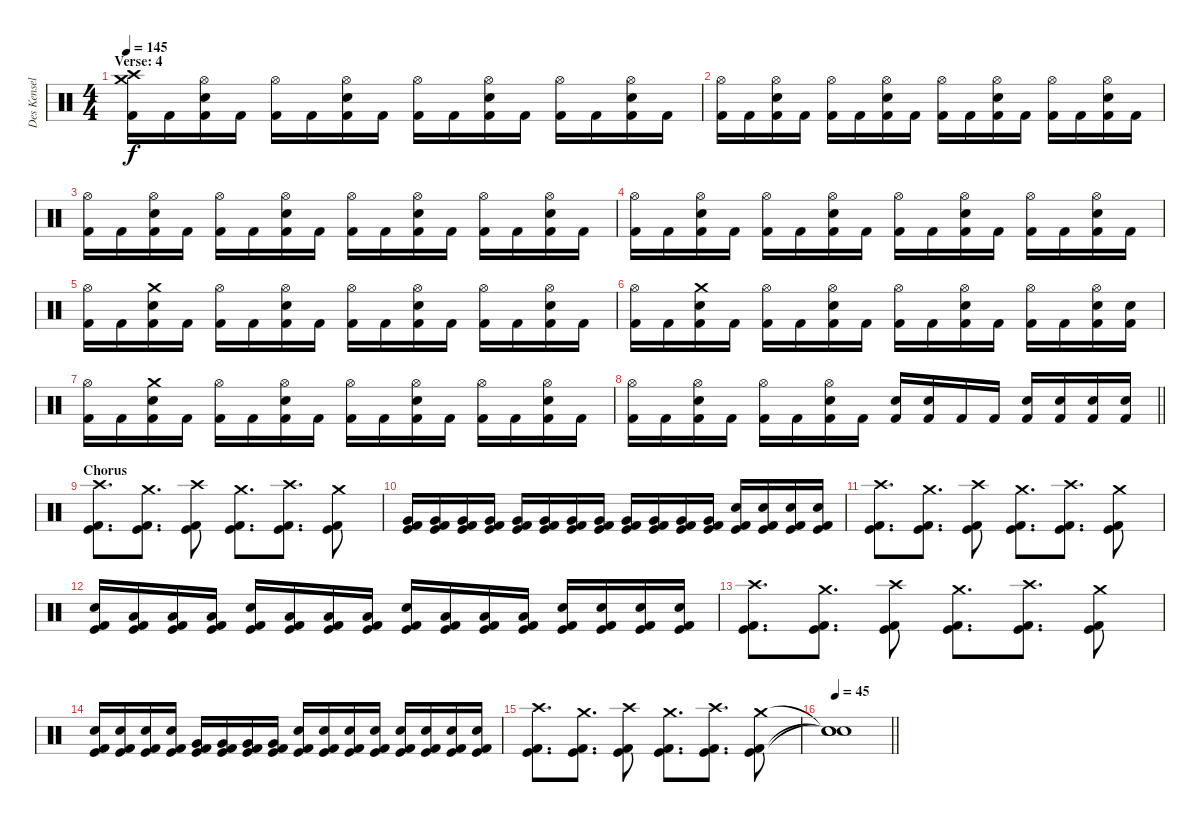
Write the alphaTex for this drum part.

\track ("Des Kensel" "Des Kensel") {instrument percussion}
\staff {score}
\articulation defaults
\ts (4 4)
\section ("" "Verse: 4")
\tempo 145
\clef neutral
\ks c
("Crash medium (hit)" "Crash high (hit)" "Kick (hit) 2").16{dy f volume 16} "Kick (hit) 2".16 ("Hi-Hat (open)" "Electric Snare (hit)" "Kick (hit) 2").16 "Kick (hit) 2".16 ("Hi-Hat (open)" "Kick (hit) 2").16 "Kick (hit) 2".16 ("Hi-Hat (open)" "Electric Snare (hit)" "Kick (hit) 2").16 "Kick (hit) 2".16 ("Hi-Hat (open)" "Kick (hit) 2").16 "Kick (hit) 2".16 ("Hi-Hat (open)" "Electric Snare (hit)" "Kick (hit) 2").16 "Kick (hit) 2".16 ("Hi-Hat (open)" "Kick (hit) 2").16 "Kick (hit) 2".16 ("Hi-Hat (open)" "Electric Snare (hit)" "Kick (hit) 2").16 "Kick (hit) 2".16 |
("Hi-Hat (open)" "Kick (hit) 2").16 "Kick (hit) 2".16 ("Hi-Hat (open)" "Electric Snare (hit)" "Kick (hit) 2").16 "Kick (hit) 2".16 ("Hi-Hat (open)" "Kick (hit) 2").16 "Kick (hit) 2".16 ("Hi-Hat (open)" "Electric Snare (hit)" "Kick (hit) 2").16 "Kick (hit) 2".16 ("Hi-Hat (open)" "Kick (hit) 2").16 "Kick (hit) 2".16 ("Hi-Hat (open)" "Electric Snare (hit)" "Kick (hit) 2").16 "Kick (hit) 2".16 ("Hi-Hat (open)" "Kick (hit) 2").16 "Kick (hit) 2".16 ("Hi-Hat (open)" "Electric Snare (hit)" "Kick (hit) 2").16 "Kick (hit) 2".16 |
("Hi-Hat (open)" "Kick (hit) 2").16 "Kick (hit) 2".16 ("Hi-Hat (open)" "Electric Snare (hit)" "Kick (hit) 2").16 "Kick (hit) 2".16 ("Hi-Hat (open)" "Kick (hit) 2").16 "Kick (hit) 2".16 ("Hi-Hat (open)" "Electric Snare (hit)" "Kick (hit) 2").16 "Kick (hit) 2".16 ("Hi-Hat (open)" "Kick (hit) 2").16 "Kick (hit) 2".16 ("Hi-Hat (open)" "Electric Snare (hit)" "Kick (hit) 2").16 "Kick (hit) 2".16 ("Hi-Hat (open)" "Kick (hit) 2").16 "Kick (hit) 2".16 ("Hi-Hat (open)" "Electric Snare (hit)" "Kick (hit) 2").16 "Kick (hit) 2".16 |
("Hi-Hat (open)" "Kick (hit) 2").16 "Kick (hit) 2".16 ("Hi-Hat (open)" "Electric Snare (hit)" "Kick (hit) 2").16 "Kick (hit) 2".16 ("Hi-Hat (open)" "Kick (hit) 2").16 "Kick (hit) 2".16 ("Hi-Hat (open)" "Electric Snare (hit)" "Kick (hit) 2").16 "Kick (hit) 2".16 ("Hi-Hat (open)" "Kick (hit) 2").16 "Kick (hit) 2".16 ("Hi-Hat (open)" "Electric Snare (hit)" "Kick (hit) 2").16 "Kick (hit) 2".16 ("Hi-Hat (open)" "Kick (hit) 2").16 "Kick (hit) 2".16 ("Hi-Hat (open)" "Electric Snare (hit)" "Kick (hit) 2").16 "Kick (hit) 2".16 |
("Hi-Hat (open)" "Kick (hit) 2").16 "Kick (hit) 2".16 ("Crash medium (hit)" "Electric Snare (hit)" "Kick (hit) 2").16 "Kick (hit) 2".16 ("Hi-Hat (open)" "Kick (hit) 2").16 "Kick (hit) 2".16 ("Hi-Hat (open)" "Electric Snare (hit)" "Kick (hit) 2").16 "Kick (hit) 2".16 ("Hi-Hat (open)" "Kick (hit) 2").16 "Kick (hit) 2".16 ("Hi-Hat (open)" "Electric Snare (hit)" "Kick (hit) 2").16 "Kick (hit) 2".16 ("Hi-Hat (open)" "Kick (hit) 2").16 "Kick (hit) 2".16 ("Hi-Hat (open)" "Electric Snare (hit)" "Kick (hit) 2").16 "Kick (hit) 2".16 |
("Hi-Hat (open)" "Kick (hit) 2").16 "Kick (hit) 2".16 ("Crash medium (hit)" "Electric Snare (hit)" "Kick (hit) 2").16 "Kick (hit) 2".16 ("Hi-Hat (open)" "Kick (hit) 2").16 "Kick (hit) 2".16 ("Hi-Hat (open)" "Electric Snare (hit)" "Kick (hit) 2").16 "Kick (hit) 2".16 ("Hi-Hat (open)" "Kick (hit) 2").16 "Kick (hit) 2".16 ("Hi-Hat (open)" "Electric Snare (hit)" "Kick (hit) 2").16 "Kick (hit) 2".16 ("Hi-Hat (open)" "Kick (hit) 2").16 "Kick (hit) 2".16 ("Hi-Hat (open)" "Electric Snare (hit)" "Kick (hit) 2").16 ("Electric Snare (hit)" "Kick (hit) 2").16 |
("Hi-Hat (open)" "Kick (hit) 2").16 "Kick (hit) 2".16 ("Crash medium (hit)" "Electric Snare (hit)" "Kick (hit) 2").16 "Kick (hit) 2".16 ("Hi-Hat (open)" "Kick (hit) 2").16 "Kick (hit) 2".16 ("Hi-Hat (open)" "Electric Snare (hit)" "Kick (hit) 2").16 "Kick (hit) 2".16 ("Hi-Hat (open)" "Kick (hit) 2").16 "Kick (hit) 2".16 ("Hi-Hat (open)" "Electric Snare (hit)" "Kick (hit) 2").16 "Kick (hit) 2".16 ("Hi-Hat (open)" "Kick (hit) 2").16 "Kick (hit) 2".16 ("Hi-Hat (open)" "Electric Snare (hit)" "Kick (hit) 2").16 "Kick (hit) 2".16 |
\barLineRight lightlight
("Hi-Hat (open)" "Kick (hit) 2").16 "Kick (hit) 2".16 ("Hi-Hat (open)" "Electric Snare (hit)" "Kick (hit) 2").16 "Kick (hit) 2".16 ("Hi-Hat (open)" "Kick (hit) 2").16 "Kick (hit) 2".16 ("Hi-Hat (open)" "Electric Snare (hit)" "Kick (hit) 2").16 "Kick (hit) 2".16 ("Electric Snare (hit)" "Kick (hit) 2").16 ("Electric Snare (hit)" "Kick (hit) 2").16 "Kick (hit) 2".16 "Kick (hit) 2".16 ("Electric Snare (hit)" "Kick (hit) 2").16 ("Electric Snare (hit)" "Kick (hit) 2").16 ("Electric Snare (hit)" "Kick (hit) 2").16 ("Electric Snare (hit)" "Kick (hit) 2").16 |
\section ("" "Chorus")
("Crash high (hit)" "Kick (hit)" "Kick (hit) 2").8{d} ("Crash medium (hit)" "Kick (hit)" "Kick (hit) 2").8{d} ("Crash high (hit)" "Kick (hit)" "Kick (hit) 2").8 ("Crash medium (hit)" "Kick (hit)" "Kick (hit) 2").8{d} ("Crash high (hit)" "Kick (hit)" "Kick (hit) 2").8{d} ("Crash medium (hit)" "Kick (hit)" "Kick (hit) 2").8 |
("Very Low Tom (hit)" "Kick (hit)" "Kick (hit) 2").16 ("Very Low Tom (hit)" "Kick (hit)" "Kick (hit) 2").16 ("Very Low Tom (hit)" "Kick (hit)" "Kick (hit) 2").16 ("Very Low Tom (hit)" "Kick (hit)" "Kick (hit) 2").16 ("Very Low Tom (hit)" "Kick (hit)" "Kick (hit) 2").16 ("Very Low Tom (hit)" "Kick (hit)" "Kick (hit) 2").16 ("Very Low Tom (hit)" "Kick (hit)" "Kick (hit) 2").16 ("Very Low Tom (hit)" "Kick (hit)" "Kick (hit) 2").16 ("Very Low Tom (hit)" "Kick (hit)" "Kick (hit) 2").16 ("Very Low Tom (hit)" "Kick (hit)" "Kick (hit) 2").16 ("Very Low Tom (hit)" "Kick (hit)" "Kick (hit) 2").16 ("Very Low Tom (hit)" "Kick (hit)" "Kick (hit) 2").16 ("Electric Snare (hit)" "Kick (hit)" "Kick (hit) 2").16 ("Electric Snare (hit)" "Kick (hit)" "Kick (hit) 2").16 ("Electric Snare (hit)" "Kick (hit)" "Kick (hit) 2").16 ("Electric Snare (hit)" "Kick (hit)" "Kick (hit) 2").16 |
("Crash high (hit)" "Kick (hit)" "Kick (hit) 2").8{d} ("Crash medium (hit)" "Kick (hit)" "Kick (hit) 2").8{d} ("Crash high (hit)" "Kick (hit)" "Kick (hit) 2").8 ("Crash medium (hit)" "Kick (hit)" "Kick (hit) 2").8{d} ("Crash high (hit)" "Kick (hit)" "Kick (hit) 2").8{d} ("Crash medium (hit)" "Kick (hit)" "Kick (hit) 2").8 |
("Electric Snare (hit)" "Kick (hit)" "Kick (hit) 2").16 ("Low Tom (hit)" "Kick (hit)" "Kick (hit) 2").16 ("Low Tom (hit)" "Kick (hit)" "Kick (hit) 2").16 ("Low Tom (hit)" "Kick (hit)" "Kick (hit) 2").16 ("Electric Snare (hit)" "Kick (hit)" "Kick (hit) 2").16 ("Low Tom (hit)" "Kick (hit)" "Kick (hit) 2").16 ("Low Tom (hit)" "Kick (hit)" "Kick (hit) 2").16 ("Low Tom (hit)" "Kick (hit)" "Kick (hit) 2").16 ("Electric Snare (hit)" "Kick (hit)" "Kick (hit) 2").16 ("Low Tom (hit)" "Kick (hit)" "Kick (hit) 2").16 ("Low Tom (hit)" "Kick (hit)" "Kick (hit) 2").16 ("Low Tom (hit)" "Kick (hit)" "Kick (hit) 2").16 ("Electric Snare (hit)" "Kick (hit)" "Kick (hit) 2").16 ("Electric Snare (hit)" "Kick (hit)" "Kick (hit) 2").16 ("Electric Snare (hit)" "Kick (hit)" "Kick (hit) 2").16 ("Electric Snare (hit)" "Kick (hit)" "Kick (hit) 2").16 |
("Crash high (hit)" "Kick (hit)" "Kick (hit) 2").8{d} ("Crash medium (hit)" "Kick (hit)" "Kick (hit) 2").8{d} ("Crash high (hit)" "Kick (hit)" "Kick (hit) 2").8 ("Crash medium (hit)" "Kick (hit)" "Kick (hit) 2").8{d} ("Crash high (hit)" "Kick (hit)" "Kick (hit) 2").8{d} ("Crash medium (hit)" "Kick (hit)" "Kick (hit) 2").8 |
("Electric Snare (hit)" "Kick (hit)" "Kick (hit) 2").16 ("Electric Snare (hit)" "Kick (hit)" "Kick (hit) 2").16 ("Electric Snare (hit)" "Kick (hit)" "Kick (hit) 2").16 ("Electric Snare (hit)" "Kick (hit)" "Kick (hit) 2").16 ("Very Low Tom (hit)" "Kick (hit)" "Kick (hit) 2").16 ("Very Low Tom (hit)" "Kick (hit)" "Kick (hit) 2").16 ("Very Low Tom (hit)" "Kick (hit)" "Kick (hit) 2").16 ("Very Low Tom (hit)" "Kick (hit)" "Kick (hit) 2").16 ("Electric Snare (hit)" "Kick (hit)" "Kick (hit) 2").16 ("Electric Snare (hit)" "Kick (hit)" "Kick (hit) 2").16 ("Electric Snare (hit)" "Kick (hit)" "Kick (hit) 2").16 ("Electric Snare (hit)" "Kick (hit)" "Kick (hit) 2").16 ("Electric Snare (hit)" "Kick (hit)" "Kick (hit) 2").16 ("Electric Snare (hit)" "Kick (hit)" "Kick (hit) 2").16 ("Electric Snare (hit)" "Kick (hit)" "Kick (hit) 2").16 ("Electric Snare (hit)" "Kick (hit)" "Kick (hit) 2").16 |
("Crash high (hit)" "Kick (hit)" "Kick (hit) 2").8{d} ("Crash medium (hit)" "Kick (hit)" "Kick (hit) 2").8{d} ("Crash high (hit)" "Kick (hit)" "Kick (hit) 2").8 ("Crash medium (hit)" "Kick (hit)" "Kick (hit) 2").8{d} ("Crash high (hit)" "Kick (hit)" "Kick (hit) 2").8{d} ("Crash medium (hit)" "Kick (hit)" "Kick (hit) 2").8 |
\tempo 45
\barLineRight lightlight
("Snare (hit)"{t} "Snare (hit)"{t} "Snare (hit)"{t}).1
